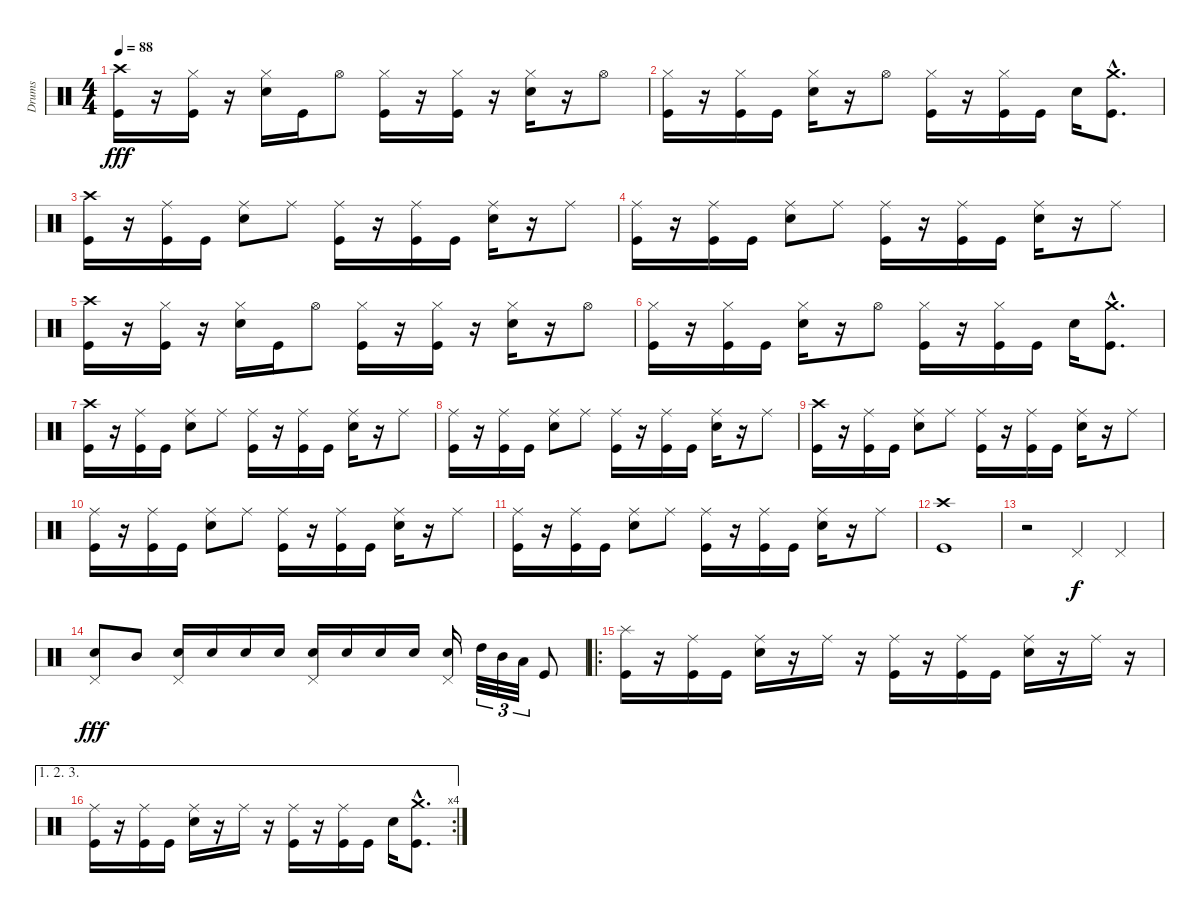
\track ("Drums" "Drums") {instrument percussion}
\staff {score}
\articulation defaults
\ts (4 4)
\tempo 88
\clef neutral
\ks c
("Crash high (hit)" "Kick (hit)").16{dy fff} r.16 ("Hi-Hat (closed)" "Kick (hit)").16 r.16 ("Hi-Hat (closed)" "Electric Snare (hit)").16 "Kick (hit)".16 "Hi-Hat (open)".8 ("Hi-Hat (closed)" "Kick (hit)").16 r.16 ("Hi-Hat (closed)" "Kick (hit)").16 r.16 ("Hi-Hat (closed)" "Electric Snare (hit)").16 r.16 "Hi-Hat (open)".8 |
("Hi-Hat (closed)" "Kick (hit)").16 r.16 ("Hi-Hat (closed)" "Kick (hit)").16 "Kick (hit)".16 ("Hi-Hat (closed)" "Electric Snare (hit)").16 r.16 "Hi-Hat (open)".8 ("Hi-Hat (closed)" "Kick (hit)").16 r.16 ("Hi-Hat (closed)" "Kick (hit)").16 "Kick (hit)".16 "Electric Snare (hit)".16 ("Crash medium (hit)"{hac} "Kick (hit)"{hac}).8{d} |
("Crash high (hit)" "Kick (hit)").16 r.16 ("Ride (middle)" "Kick (hit)").16 "Kick (hit)".16 ("Ride (middle)" "Electric Snare (hit)").8 "Ride (middle)".8 ("Ride (middle)" "Kick (hit)").16 r.16 ("Ride (middle)" "Kick (hit)").16 "Kick (hit)".16 ("Ride (middle)" "Electric Snare (hit)").16 r.16 "Ride (middle)".8 |
("Ride (middle)" "Kick (hit)").16 r.16 ("Ride (middle)" "Kick (hit)").16 "Kick (hit)".16 ("Ride (middle)" "Electric Snare (hit)").8 "Ride (middle)".8 ("Ride (middle)" "Kick (hit)").16 r.16 ("Ride (middle)" "Kick (hit)").16 "Kick (hit)".16 ("Ride (middle)" "Electric Snare (hit)").16 r.16 "Ride (middle)".8 |
("Crash high (hit)" "Kick (hit)").16 r.16 ("Hi-Hat (closed)" "Kick (hit)").16 r.16 ("Hi-Hat (closed)" "Electric Snare (hit)").16 "Kick (hit)".16 "Hi-Hat (open)".8 ("Hi-Hat (closed)" "Kick (hit)").16 r.16 ("Hi-Hat (closed)" "Kick (hit)").16 r.16 ("Hi-Hat (closed)" "Electric Snare (hit)").16 r.16 "Hi-Hat (open)".8 |
("Hi-Hat (closed)" "Kick (hit)").16 r.16 ("Hi-Hat (closed)" "Kick (hit)").16 "Kick (hit)".16 ("Hi-Hat (closed)" "Electric Snare (hit)").16 r.16 "Hi-Hat (open)".8 ("Hi-Hat (closed)" "Kick (hit)").16 r.16 ("Hi-Hat (closed)" "Kick (hit)").16 "Kick (hit)".16 "Electric Snare (hit)".16 ("Crash medium (hit)"{hac} "Kick (hit)"{hac}).8{d} |
("Crash high (hit)" "Kick (hit)").16 r.16 ("Ride (middle)" "Kick (hit)").16 "Kick (hit)".16 ("Ride (middle)" "Electric Snare (hit)").8 "Ride (middle)".8 ("Ride (middle)" "Kick (hit)").16 r.16 ("Ride (middle)" "Kick (hit)").16 "Kick (hit)".16 ("Ride (middle)" "Electric Snare (hit)").16 r.16 "Ride (middle)".8 |
("Ride (middle)" "Kick (hit)").16 r.16 ("Ride (middle)" "Kick (hit)").16 "Kick (hit)".16 ("Ride (middle)" "Electric Snare (hit)").8 "Ride (middle)".8 ("Ride (middle)" "Kick (hit)").16 r.16 ("Ride (middle)" "Kick (hit)").16 "Kick (hit)".16 ("Ride (middle)" "Electric Snare (hit)").16 r.16 "Ride (middle)".8 |
("Crash high (hit)" "Kick (hit)").16 r.16 ("Ride (middle)" "Kick (hit)").16 "Kick (hit)".16 ("Ride (middle)" "Electric Snare (hit)").8 "Ride (middle)".8 ("Ride (middle)" "Kick (hit)").16 r.16 ("Ride (middle)" "Kick (hit)").16 "Kick (hit)".16 ("Ride (middle)" "Electric Snare (hit)").16 r.16 "Ride (middle)".8 |
("Ride (middle)" "Kick (hit)").16 r.16 ("Ride (middle)" "Kick (hit)").16 "Kick (hit)".16 ("Ride (middle)" "Electric Snare (hit)").8 "Ride (middle)".8 ("Ride (middle)" "Kick (hit)").16 r.16 ("Ride (middle)" "Kick (hit)").16 "Kick (hit)".16 ("Ride (middle)" "Electric Snare (hit)").16 r.16 "Ride (middle)".8 |
("Ride (middle)" "Kick (hit)").16 r.16 ("Ride (middle)" "Kick (hit)").16 "Kick (hit)".16 ("Ride (middle)" "Electric Snare (hit)").8 "Ride (middle)".8 ("Ride (middle)" "Kick (hit)").16 r.16 ("Ride (middle)" "Kick (hit)").16 "Kick (hit)".16 ("Ride (middle)" "Electric Snare (hit)").16 r.16 "Ride (middle)".8 |
("Crash high (hit)" "Kick (hit)").1 |
r.2 "Pedal Hi-Hat (hit)".4{dy f} "Pedal Hi-Hat (hit)".4 |
("Pedal Hi-Hat (hit)" "Electric Snare (hit)").8{dy fff} "Mid Tom (hit)".8 ("Pedal Hi-Hat (hit)" "Electric Snare (hit)").16 "Electric Snare (hit)".16 "Electric Snare (hit)".16 "Electric Snare (hit)".16 ("Pedal Hi-Hat (hit)" "Electric Snare (hit)").16 "Electric Snare (hit)".16 "Electric Snare (hit)".16 "Electric Snare (hit)".16 ("Pedal Hi-Hat (hit)" "Electric Snare (hit)").16 "High Tom (hit)".32{tu (3 2)} "Mid Tom (hit)".32{tu (3 2)} "Low Tom (hit)".32{tu (3 2)} "Kick (hit)".8 |
\ro
("Splash (hit)" "Kick (hit)").16 r.16 ("Ride (middle)" "Kick (hit)").16 "Kick (hit)".16 ("Ride (middle)" "Electric Snare (hit)").16 r.16 "Ride (middle)".16 r.16 ("Ride (middle)" "Kick (hit)").16 r.16 ("Ride (middle)" "Kick (hit)").16 "Kick (hit)".16 ("Ride (middle)" "Electric Snare (hit)").16 r.16 "Ride (middle)".16 r.16 |
\ae (1 2 3)
\rc 4
("Ride (middle)" "Kick (hit)").16 r.16 ("Ride (middle)" "Kick (hit)").16 "Kick (hit)".16 ("Ride (middle)" "Electric Snare (hit)").16 r.16 "Ride (middle)".16 r.16 ("Ride (middle)" "Kick (hit)").16 r.16 ("Ride (middle)" "Kick (hit)").16 "Kick (hit)".16 "Electric Snare (hit)".16 ("Crash medium (hit)"{hac} "Kick (hit)"{hac}).8{d}
